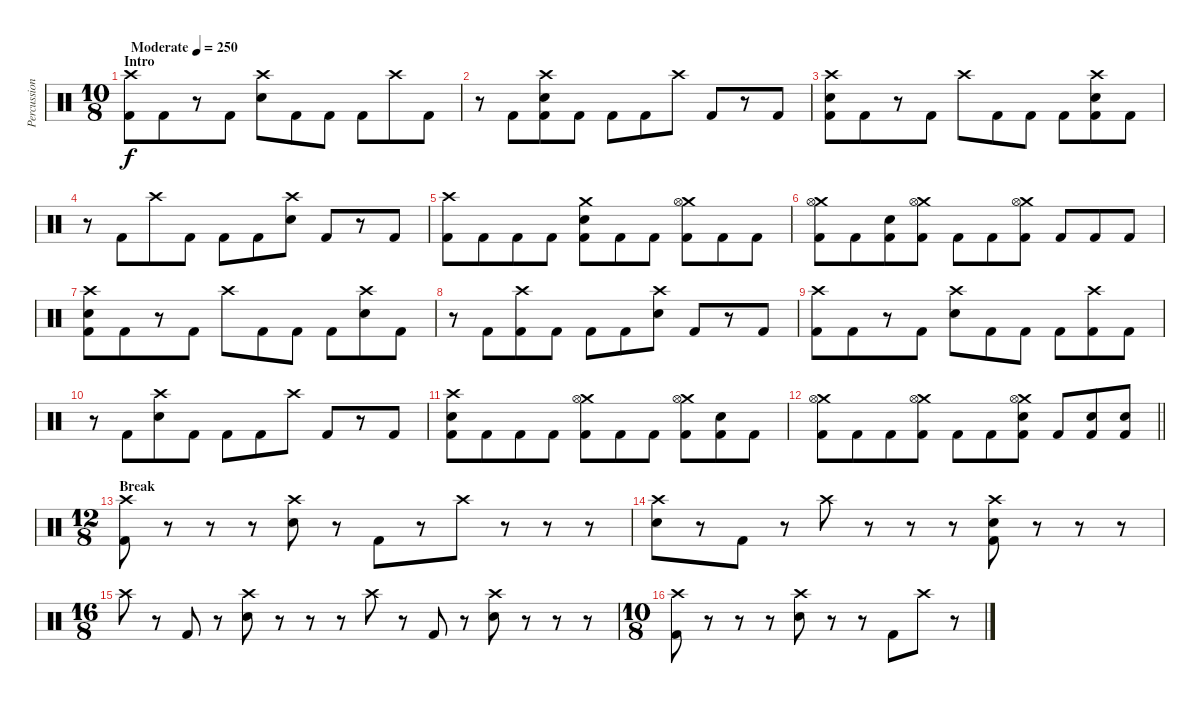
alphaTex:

\track ("Percussions" "Percussion") {instrument percussion}
\staff {score}
\articulation defaults
\ts (10 8)
\section ("" "Intro")
\tempo (250 "Moderate")
\clef neutral
\ks c
("Crash high (hit)" "Kick (hit) 2").8{dy f} "Kick (hit) 2".8 r.8 "Kick (hit) 2".8 ("Crash high (hit)" "Electric Snare (hit)").8 "Kick (hit) 2".8 "Kick (hit) 2".8 "Kick (hit) 2".8 "Crash high (hit)".8 "Kick (hit) 2".8 |
r.8 "Kick (hit) 2".8 ("Crash high (hit)" "Electric Snare (hit)" "Kick (hit) 2").8 "Kick (hit) 2".8 "Kick (hit) 2".8 "Kick (hit) 2".8 "Crash high (hit)".8 "Kick (hit) 2".8 r.8 "Kick (hit) 2".8 |
("Crash high (hit)" "Electric Snare (hit)" "Kick (hit) 2").8 "Kick (hit) 2".8 r.8 "Kick (hit) 2".8 "Crash high (hit)".8 "Kick (hit) 2".8 "Kick (hit) 2".8 "Kick (hit) 2".8 ("Crash high (hit)" "Electric Snare (hit)" "Kick (hit) 2").8 "Kick (hit) 2".8 |
r.8 "Kick (hit) 2".8 "Crash high (hit)".8 "Kick (hit) 2".8 "Kick (hit) 2".8 "Kick (hit) 2".8 ("Crash high (hit)" "Electric Snare (hit)").8 "Kick (hit) 2".8 r.8 "Kick (hit) 2".8 |
("Crash high (hit)" "Kick (hit) 2").8 "Kick (hit) 2".8 "Kick (hit) 2".8 "Kick (hit) 2".8 ("Crash medium (hit)" "Electric Snare (hit)" "Kick (hit) 2").8 "Kick (hit) 2".8 "Kick (hit) 2".8 ("Crash medium (hit)" "Hi-Hat (open)" "Kick (hit) 2").8 "Kick (hit) 2".8 "Kick (hit) 2".8 |
("Crash medium (hit)" "Hi-Hat (open)" "Kick (hit) 2").8 "Kick (hit) 2".8 ("Electric Snare (hit)" "Kick (hit) 2").8 ("Crash medium (hit)" "Hi-Hat (open)" "Kick (hit) 2").8 "Kick (hit) 2".8 "Kick (hit) 2".8 ("Crash medium (hit)" "Hi-Hat (open)" "Kick (hit) 2").8 "Kick (hit) 2".8 "Kick (hit) 2".8 "Kick (hit) 2".8 |
("Crash high (hit)" "Electric Snare (hit)" "Kick (hit) 2").8 "Kick (hit) 2".8 r.8 "Kick (hit) 2".8 "Crash high (hit)".8 "Kick (hit) 2".8 "Kick (hit) 2".8 "Kick (hit) 2".8 ("Crash high (hit)" "Electric Snare (hit)").8 "Kick (hit) 2".8 |
r.8 "Kick (hit) 2".8 ("Crash high (hit)" "Kick (hit) 2").8 "Kick (hit) 2".8 "Kick (hit) 2".8 "Kick (hit) 2".8 ("Crash high (hit)" "Electric Snare (hit)").8 "Kick (hit) 2".8 r.8 "Kick (hit) 2".8 |
("Crash high (hit)" "Kick (hit) 2").8 "Kick (hit) 2".8 r.8 "Kick (hit) 2".8 ("Crash high (hit)" "Electric Snare (hit)").8 "Kick (hit) 2".8 "Kick (hit) 2".8 "Kick (hit) 2".8 ("Crash high (hit)" "Kick (hit) 2").8 "Kick (hit) 2".8 |
r.8 "Kick (hit) 2".8 ("Crash high (hit)" "Electric Snare (hit)").8 "Kick (hit) 2".8 "Kick (hit) 2".8 "Kick (hit) 2".8 "Crash high (hit)".8 "Kick (hit) 2".8 r.8 "Kick (hit) 2".8 |
("Crash high (hit)" "Electric Snare (hit)" "Kick (hit) 2").8 "Kick (hit) 2".8 "Kick (hit) 2".8 "Kick (hit) 2".8 ("Crash medium (hit)" "Hi-Hat (open)" "Kick (hit) 2").8 "Kick (hit) 2".8 "Kick (hit) 2".8 ("Crash medium (hit)" "Hi-Hat (open)" "Kick (hit) 2").8 ("Electric Snare (hit)" "Kick (hit) 2").8 "Kick (hit) 2".8 |
\barLineRight lightlight
("Crash medium (hit)" "Hi-Hat (open)" "Kick (hit) 2").8 "Kick (hit) 2".8 "Kick (hit) 2".8 ("Crash medium (hit)" "Hi-Hat (open)" "Kick (hit) 2").8 "Kick (hit) 2".8 "Kick (hit) 2".8 ("Crash medium (hit)" "Hi-Hat (open)" "Electric Snare (hit)" "Kick (hit) 2").8 "Kick (hit) 2".8 ("Electric Snare (hit)" "Kick (hit) 2").8 ("Electric Snare (hit)" "Kick (hit) 2").8 |
\ts (12 8)
\section ("" "Break")
("Crash high (hit)" "Kick (hit) 2").8 r.8 r.8 r.8 ("Crash high (hit)" "Electric Snare (hit)").8 r.8 "Kick (hit) 2".8 r.8 "Crash high (hit)".8 r.8 r.8 r.8 |
("Crash high (hit)" "Electric Snare (hit)").8 r.8 "Kick (hit) 2".8 r.8 "Crash high (hit)".8 r.8 r.8 r.8 ("Crash high (hit)" "Electric Snare (hit)" "Kick (hit) 2").8 r.8 r.8 r.8 |
\ts (16 8)
"Crash high (hit)".8 r.8 "Kick (hit) 2".8 r.8 ("Crash high (hit)" "Electric Snare (hit)").8 r.8 r.8 r.8 "Crash high (hit)".8 r.8 "Kick (hit) 2".8 r.8 ("Crash high (hit)" "Electric Snare (hit)").8 r.8 r.8 r.8 |
\ts (10 8)
("Crash high (hit)" "Kick (hit) 2").8 r.8 r.8 r.8 ("Crash high (hit)" "Electric Snare (hit)").8 r.8 r.8 "Kick (hit) 2".8 "Crash high (hit)".8 r.8
